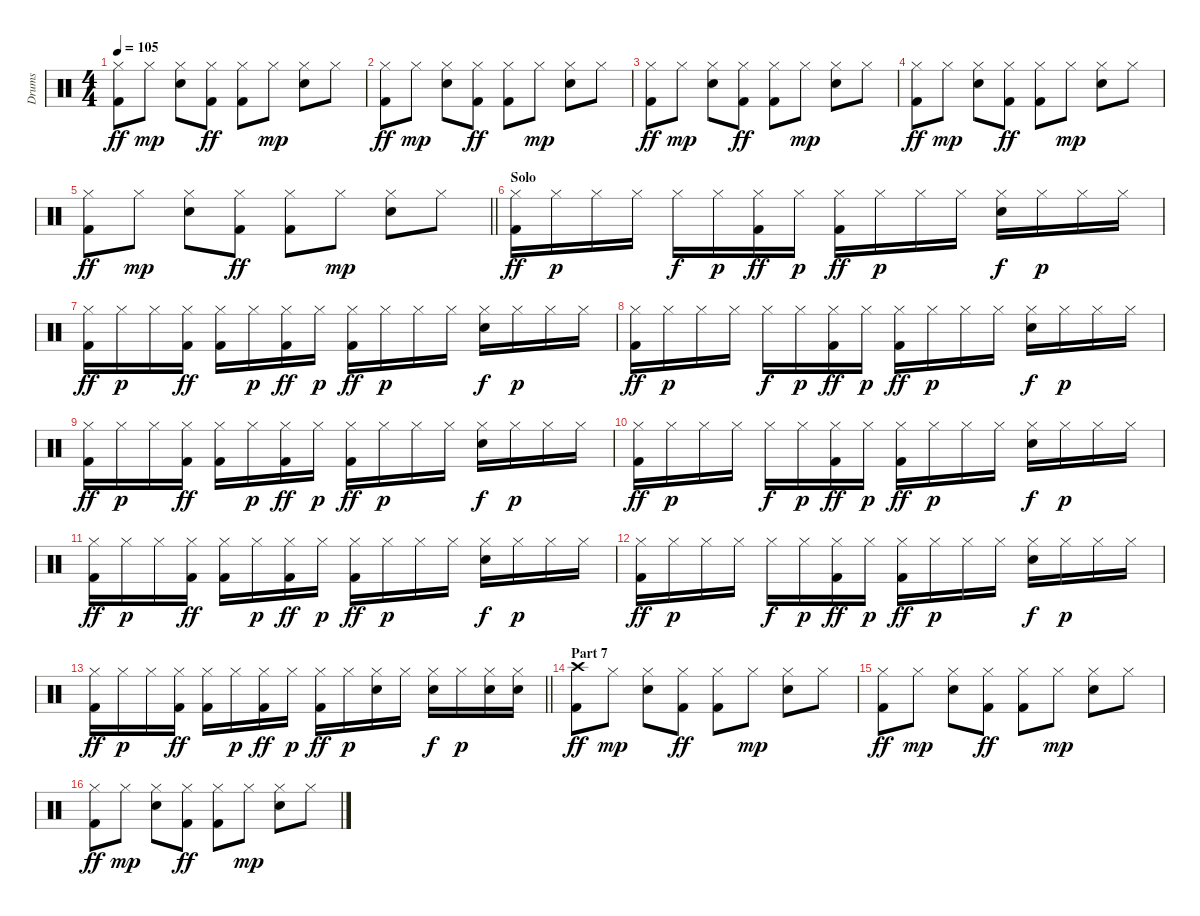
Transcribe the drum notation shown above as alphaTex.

\track ("Drums" "Drums") {instrument percussion}
\staff {score}
\articulation defaults
\ts (4 4)
\tempo 105
\clef neutral
\ks c
("Hi-Hat (closed)" "Kick (hit) 2").8{dy ff} "Hi-Hat (closed)".8{dy mp} ("Hi-Hat (closed)" "Electric Snare (hit)").8 ("Hi-Hat (closed)" "Kick (hit) 2").8{dy ff} ("Hi-Hat (closed)" "Kick (hit) 2").8 "Hi-Hat (closed)".8{dy mp} ("Hi-Hat (closed)" "Electric Snare (hit)").8 "Hi-Hat (closed)".8 |
("Hi-Hat (closed)" "Kick (hit) 2").8{dy ff} "Hi-Hat (closed)".8{dy mp} ("Hi-Hat (closed)" "Electric Snare (hit)").8 ("Hi-Hat (closed)" "Kick (hit) 2").8{dy ff} ("Hi-Hat (closed)" "Kick (hit) 2").8 "Hi-Hat (closed)".8{dy mp} ("Hi-Hat (closed)" "Electric Snare (hit)").8 "Hi-Hat (closed)".8 |
("Hi-Hat (closed)" "Kick (hit) 2").8{dy ff} "Hi-Hat (closed)".8{dy mp} ("Hi-Hat (closed)" "Electric Snare (hit)").8 ("Hi-Hat (closed)" "Kick (hit) 2").8{dy ff} ("Hi-Hat (closed)" "Kick (hit) 2").8 "Hi-Hat (closed)".8{dy mp} ("Hi-Hat (closed)" "Electric Snare (hit)").8 "Hi-Hat (closed)".8 |
("Hi-Hat (closed)" "Kick (hit) 2").8{dy ff} "Hi-Hat (closed)".8{dy mp} ("Hi-Hat (closed)" "Electric Snare (hit)").8 ("Hi-Hat (closed)" "Kick (hit) 2").8{dy ff} ("Hi-Hat (closed)" "Kick (hit) 2").8 "Hi-Hat (closed)".8{dy mp} ("Hi-Hat (closed)" "Electric Snare (hit)").8 "Hi-Hat (closed)".8 |
\barLineRight lightlight
("Hi-Hat (closed)" "Kick (hit) 2").8{dy ff} "Hi-Hat (closed)".8{dy mp} ("Hi-Hat (closed)" "Electric Snare (hit)").8 ("Hi-Hat (closed)" "Kick (hit) 2").8{dy ff} ("Hi-Hat (closed)" "Kick (hit) 2").8 "Hi-Hat (closed)".8{dy mp} ("Hi-Hat (closed)" "Electric Snare (hit)").8 "Hi-Hat (closed)".8 |
\section ("" "Solo")
("Hi-Hat (closed)" "Kick (hit) 2").16{dy ff} "Hi-Hat (closed)".16{dy p} "Hi-Hat (closed)".16 "Hi-Hat (closed)".16 "Hi-Hat (closed)".16{dy f} "Hi-Hat (closed)".16{dy p} ("Hi-Hat (closed)" "Kick (hit) 2").16{dy ff} "Hi-Hat (closed)".16{dy p} ("Hi-Hat (closed)" "Kick (hit) 2").16{dy ff} "Hi-Hat (closed)".16{dy p} "Hi-Hat (closed)".16 "Hi-Hat (closed)".16 ("Hi-Hat (closed)" "Electric Snare (hit)").16{dy f} "Hi-Hat (closed)".16{dy p} "Hi-Hat (closed)".16 "Hi-Hat (closed)".16 |
("Hi-Hat (closed)" "Kick (hit) 2").16{dy ff} "Hi-Hat (closed)".16{dy p} "Hi-Hat (closed)".16 ("Hi-Hat (closed)" "Kick (hit) 2").16{dy ff} ("Hi-Hat (closed)" "Kick (hit) 2").16 "Hi-Hat (closed)".16{dy p} ("Hi-Hat (closed)" "Kick (hit) 2").16{dy ff} "Hi-Hat (closed)".16{dy p} ("Hi-Hat (closed)" "Kick (hit) 2").16{dy ff} "Hi-Hat (closed)".16{dy p} "Hi-Hat (closed)".16 "Hi-Hat (closed)".16 ("Hi-Hat (closed)" "Electric Snare (hit)").16{dy f} "Hi-Hat (closed)".16{dy p} "Hi-Hat (closed)".16 "Hi-Hat (closed)".16 |
("Hi-Hat (closed)" "Kick (hit) 2").16{dy ff} "Hi-Hat (closed)".16{dy p} "Hi-Hat (closed)".16 "Hi-Hat (closed)".16 "Hi-Hat (closed)".16{dy f} "Hi-Hat (closed)".16{dy p} ("Hi-Hat (closed)" "Kick (hit) 2").16{dy ff} "Hi-Hat (closed)".16{dy p} ("Hi-Hat (closed)" "Kick (hit) 2").16{dy ff} "Hi-Hat (closed)".16{dy p} "Hi-Hat (closed)".16 "Hi-Hat (closed)".16 ("Hi-Hat (closed)" "Electric Snare (hit)").16{dy f} "Hi-Hat (closed)".16{dy p} "Hi-Hat (closed)".16 "Hi-Hat (closed)".16 |
("Hi-Hat (closed)" "Kick (hit) 2").16{dy ff} "Hi-Hat (closed)".16{dy p} "Hi-Hat (closed)".16 ("Hi-Hat (closed)" "Kick (hit) 2").16{dy ff} ("Hi-Hat (closed)" "Kick (hit) 2").16 "Hi-Hat (closed)".16{dy p} ("Hi-Hat (closed)" "Kick (hit) 2").16{dy ff} "Hi-Hat (closed)".16{dy p} ("Hi-Hat (closed)" "Kick (hit) 2").16{dy ff} "Hi-Hat (closed)".16{dy p} "Hi-Hat (closed)".16 "Hi-Hat (closed)".16 ("Hi-Hat (closed)" "Electric Snare (hit)").16{dy f} "Hi-Hat (closed)".16{dy p} "Hi-Hat (closed)".16 "Hi-Hat (closed)".16 |
("Hi-Hat (closed)" "Kick (hit) 2").16{dy ff} "Hi-Hat (closed)".16{dy p} "Hi-Hat (closed)".16 "Hi-Hat (closed)".16 "Hi-Hat (closed)".16{dy f} "Hi-Hat (closed)".16{dy p} ("Hi-Hat (closed)" "Kick (hit) 2").16{dy ff} "Hi-Hat (closed)".16{dy p} ("Hi-Hat (closed)" "Kick (hit) 2").16{dy ff} "Hi-Hat (closed)".16{dy p} "Hi-Hat (closed)".16 "Hi-Hat (closed)".16 ("Hi-Hat (closed)" "Electric Snare (hit)").16{dy f} "Hi-Hat (closed)".16{dy p} "Hi-Hat (closed)".16 "Hi-Hat (closed)".16 |
("Hi-Hat (closed)" "Kick (hit) 2").16{dy ff} "Hi-Hat (closed)".16{dy p} "Hi-Hat (closed)".16 ("Hi-Hat (closed)" "Kick (hit) 2").16{dy ff} ("Hi-Hat (closed)" "Kick (hit) 2").16 "Hi-Hat (closed)".16{dy p} ("Hi-Hat (closed)" "Kick (hit) 2").16{dy ff} "Hi-Hat (closed)".16{dy p} ("Hi-Hat (closed)" "Kick (hit) 2").16{dy ff} "Hi-Hat (closed)".16{dy p} "Hi-Hat (closed)".16 "Hi-Hat (closed)".16 ("Hi-Hat (closed)" "Electric Snare (hit)").16{dy f} "Hi-Hat (closed)".16{dy p} "Hi-Hat (closed)".16 "Hi-Hat (closed)".16 |
("Hi-Hat (closed)" "Kick (hit) 2").16{dy ff} "Hi-Hat (closed)".16{dy p} "Hi-Hat (closed)".16 "Hi-Hat (closed)".16 "Hi-Hat (closed)".16{dy f} "Hi-Hat (closed)".16{dy p} ("Hi-Hat (closed)" "Kick (hit) 2").16{dy ff} "Hi-Hat (closed)".16{dy p} ("Hi-Hat (closed)" "Kick (hit) 2").16{dy ff} "Hi-Hat (closed)".16{dy p} "Hi-Hat (closed)".16 "Hi-Hat (closed)".16 ("Hi-Hat (closed)" "Electric Snare (hit)").16{dy f} "Hi-Hat (closed)".16{dy p} "Hi-Hat (closed)".16 "Hi-Hat (closed)".16 |
\barLineRight lightlight
("Hi-Hat (closed)" "Kick (hit) 2").16{dy ff} "Hi-Hat (closed)".16{dy p} "Hi-Hat (closed)".16 ("Hi-Hat (closed)" "Kick (hit) 2").16{dy ff} ("Hi-Hat (closed)" "Kick (hit) 2").16 "Hi-Hat (closed)".16{dy p} ("Hi-Hat (closed)" "Kick (hit) 2").16{dy ff} "Hi-Hat (closed)".16{dy p} ("Hi-Hat (closed)" "Kick (hit) 2").16{dy ff} "Hi-Hat (closed)".16{dy p} ("Hi-Hat (closed)" "Electric Snare (hit)").16 "Hi-Hat (closed)".16 ("Hi-Hat (closed)" "Electric Snare (hit)").16{dy f} "Hi-Hat (closed)".16{dy p} ("Hi-Hat (closed)" "Electric Snare (hit)").16 ("Hi-Hat (closed)" "Electric Snare (hit)").16 |
\section ("" "Part 7")
("Crash high (hit)" "Kick (hit) 2").8{dy ff} "Hi-Hat (closed)".8{dy mp} ("Hi-Hat (closed)" "Electric Snare (hit)").8 ("Hi-Hat (closed)" "Kick (hit) 2").8{dy ff} ("Hi-Hat (closed)" "Kick (hit) 2").8 "Hi-Hat (closed)".8{dy mp} ("Hi-Hat (closed)" "Electric Snare (hit)").8 "Hi-Hat (closed)".8 |
("Hi-Hat (closed)" "Kick (hit) 2").8{dy ff} "Hi-Hat (closed)".8{dy mp} ("Hi-Hat (closed)" "Electric Snare (hit)").8 ("Hi-Hat (closed)" "Kick (hit) 2").8{dy ff} ("Hi-Hat (closed)" "Kick (hit) 2").8 "Hi-Hat (closed)".8{dy mp} ("Hi-Hat (closed)" "Electric Snare (hit)").8 "Hi-Hat (closed)".8 |
("Hi-Hat (closed)" "Kick (hit) 2").8{dy ff} "Hi-Hat (closed)".8{dy mp} ("Hi-Hat (closed)" "Electric Snare (hit)").8 ("Hi-Hat (closed)" "Kick (hit) 2").8{dy ff} ("Hi-Hat (closed)" "Kick (hit) 2").8 "Hi-Hat (closed)".8{dy mp} ("Hi-Hat (closed)" "Electric Snare (hit)").8 "Hi-Hat (closed)".8
